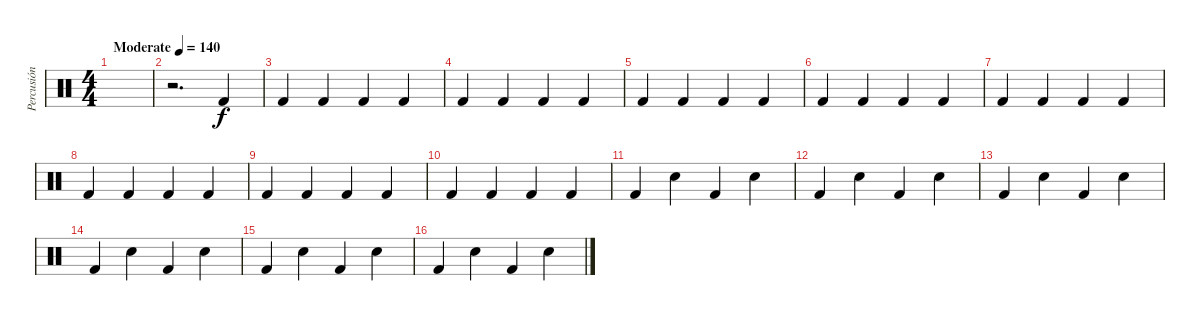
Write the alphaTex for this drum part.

\track ("Percusión" "Percusión") {instrument percussion}
\staff {score}
\articulation defaults
\ts (4 4)
\tempo (140 "Moderate")
\clef neutral
\ks c
|
r.2{d} "Kick (hit) 2".4 |
"Kick (hit) 2".4 "Kick (hit) 2".4 "Kick (hit) 2".4 "Kick (hit) 2".4 |
"Kick (hit) 2".4 "Kick (hit) 2".4 "Kick (hit) 2".4 "Kick (hit) 2".4 |
"Kick (hit) 2".4 "Kick (hit) 2".4 "Kick (hit) 2".4 "Kick (hit) 2".4 |
"Kick (hit) 2".4 "Kick (hit) 2".4 "Kick (hit) 2".4 "Kick (hit) 2".4 |
"Kick (hit) 2".4 "Kick (hit) 2".4 "Kick (hit) 2".4 "Kick (hit) 2".4 |
"Kick (hit) 2".4 "Kick (hit) 2".4 "Kick (hit) 2".4 "Kick (hit) 2".4 |
"Kick (hit) 2".4 "Kick (hit) 2".4 "Kick (hit) 2".4 "Kick (hit) 2".4 |
"Kick (hit) 2".4 "Kick (hit) 2".4 "Kick (hit) 2".4 "Kick (hit) 2".4 |
"Kick (hit) 2".4 "Snare (hit) 2".4 "Kick (hit) 2".4 "Snare (hit) 2".4 |
"Kick (hit) 2".4 "Snare (hit) 2".4 "Kick (hit) 2".4 "Snare (hit) 2".4 |
"Kick (hit) 2".4 "Snare (hit) 2".4 "Kick (hit) 2".4 "Snare (hit) 2".4 |
"Kick (hit) 2".4 "Snare (hit) 2".4 "Kick (hit) 2".4 "Snare (hit) 2".4 |
"Kick (hit) 2".4 "Snare (hit) 2".4 "Kick (hit) 2".4 "Snare (hit) 2".4 |
"Kick (hit) 2".4 "Snare (hit) 2".4 "Kick (hit) 2".4 "Snare (hit) 2".4
